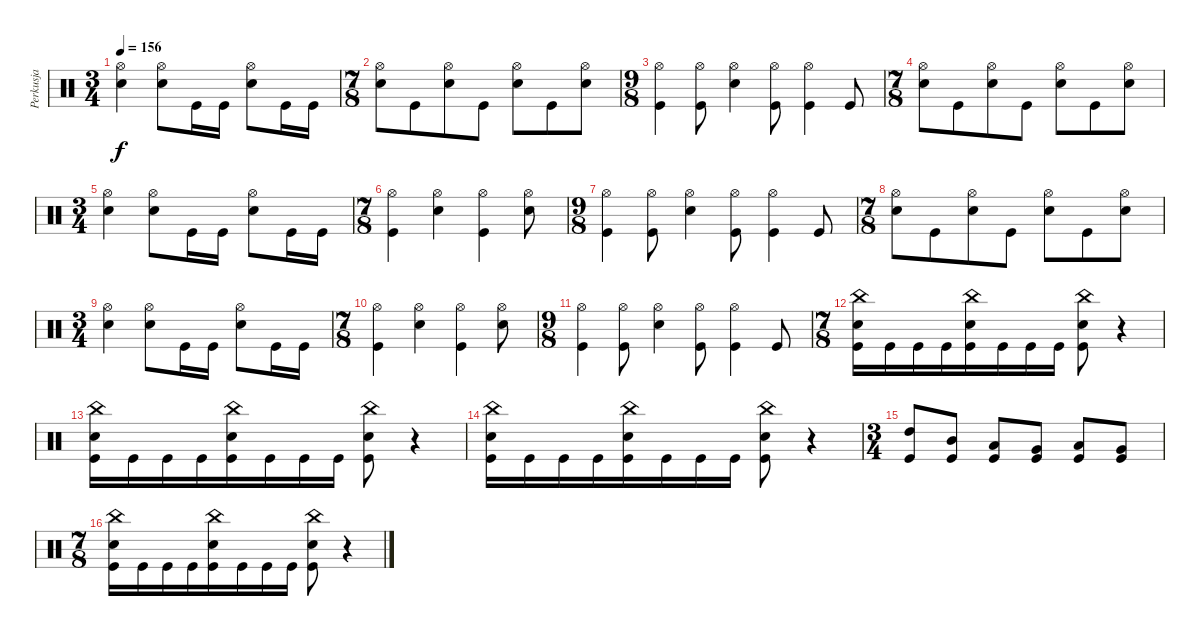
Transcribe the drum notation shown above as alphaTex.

\track ("Perkusja" "Perkusja") {instrument percussion}
\staff {score}
\articulation defaults
\ts (3 4)
\tempo 156
\clef neutral
\ks c
("Hi-Hat (open)" "Snare (hit) 2").4{dy f} ("Hi-Hat (open)" "Snare (hit) 2").8 "Kick (hit)".16 "Kick (hit)".16 ("Hi-Hat (open)" "Snare (hit) 2").8 "Kick (hit)".16 "Kick (hit)".16 |
\ts (7 8)
("Hi-Hat (open)" "Snare (hit) 2").8 "Kick (hit)".8 ("Hi-Hat (open)" "Snare (hit) 2").8 "Kick (hit)".8 ("Hi-Hat (open)" "Snare (hit) 2").8 "Kick (hit)".8 ("Hi-Hat (open)" "Snare (hit) 2").8 |
\ts (9 8)
("Hi-Hat (open)" "Kick (hit)").4 ("Hi-Hat (open)" "Kick (hit)").8 ("Hi-Hat (open)" "Snare (hit) 2").4 ("Hi-Hat (open)" "Kick (hit)").8 ("Hi-Hat (open)" "Kick (hit)").4 "Kick (hit)".8 |
\ts (7 8)
("Hi-Hat (open)" "Snare (hit) 2").8 "Kick (hit)".8 ("Hi-Hat (open)" "Snare (hit) 2").8 "Kick (hit)".8 ("Hi-Hat (open)" "Snare (hit) 2").8 "Kick (hit)".8 ("Hi-Hat (open)" "Snare (hit) 2").8 |
\ts (3 4)
("Hi-Hat (open)" "Snare (hit) 2").4 ("Hi-Hat (open)" "Snare (hit) 2").8 "Kick (hit)".16 "Kick (hit)".16 ("Hi-Hat (open)" "Snare (hit) 2").8 "Kick (hit)".16 "Kick (hit)".16 |
\ts (7 8)
("Hi-Hat (open)" "Kick (hit)").4 ("Hi-Hat (open)" "Snare (hit) 2").4 ("Hi-Hat (open)" "Kick (hit)").4 ("Hi-Hat (open)" "Snare (hit) 2").8 |
\ts (9 8)
("Hi-Hat (open)" "Kick (hit)").4 ("Hi-Hat (open)" "Kick (hit)").8 ("Hi-Hat (open)" "Snare (hit) 2").4 ("Hi-Hat (open)" "Kick (hit)").8 ("Hi-Hat (open)" "Kick (hit)").4 "Kick (hit)".8 |
\ts (7 8)
("Hi-Hat (open)" "Snare (hit) 2").8 "Kick (hit)".8 ("Hi-Hat (open)" "Snare (hit) 2").8 "Kick (hit)".8 ("Hi-Hat (open)" "Snare (hit) 2").8 "Kick (hit)".8 ("Hi-Hat (open)" "Snare (hit) 2").8 |
\ts (3 4)
("Hi-Hat (open)" "Snare (hit) 2").4 ("Hi-Hat (open)" "Snare (hit) 2").8 "Kick (hit)".16 "Kick (hit)".16 ("Hi-Hat (open)" "Snare (hit) 2").8 "Kick (hit)".16 "Kick (hit)".16 |
\ts (7 8)
("Hi-Hat (open)" "Kick (hit)").4 ("Hi-Hat (open)" "Snare (hit) 2").4 ("Hi-Hat (open)" "Kick (hit)").4 ("Hi-Hat (open)" "Snare (hit) 2").8 |
\ts (9 8)
("Hi-Hat (open)" "Kick (hit)").4 ("Hi-Hat (open)" "Kick (hit)").8 ("Hi-Hat (open)" "Snare (hit) 2").4 ("Hi-Hat (open)" "Kick (hit)").8 ("Hi-Hat (open)" "Kick (hit)").4 "Kick (hit)".8 |
\ts (7 8)
("China (hit)" "Snare (hit) 2" "Kick (hit)").16 "Kick (hit)".16 "Kick (hit)".16 "Kick (hit)".16 ("China (hit)" "Snare (hit) 2" "Kick (hit)").16 "Kick (hit)".16 "Kick (hit)".16 "Kick (hit)".16 ("China (hit)" "Snare (hit) 2" "Kick (hit)").8 r.4 |
("China (hit)" "Snare (hit) 2" "Kick (hit)").16 "Kick (hit)".16 "Kick (hit)".16 "Kick (hit)".16 ("China (hit)" "Snare (hit) 2" "Kick (hit)").16 "Kick (hit)".16 "Kick (hit)".16 "Kick (hit)".16 ("China (hit)" "Snare (hit) 2" "Kick (hit)").8 r.4 |
("China (hit)" "Snare (hit) 2" "Kick (hit)").16 "Kick (hit)".16 "Kick (hit)".16 "Kick (hit)".16 ("China (hit)" "Snare (hit) 2" "Kick (hit)").16 "Kick (hit)".16 "Kick (hit)".16 "Kick (hit)".16 ("China (hit)" "Snare (hit) 2" "Kick (hit)").8 r.4 |
\ts (3 4)
("High Tom (hit)" "Kick (hit)").8 ("Mid Tom (hit)" "Kick (hit)").8 ("Low Tom (hit)" "Kick (hit)").8 ("Very Low Tom (hit)" "Kick (hit)").8 ("Low Tom (hit)" "Kick (hit)").8 ("Very Low Tom (hit)" "Kick (hit)").8 |
\ts (7 8)
("China (hit)" "Snare (hit) 2" "Kick (hit)").16 "Kick (hit)".16 "Kick (hit)".16 "Kick (hit)".16 ("China (hit)" "Snare (hit) 2" "Kick (hit)").16 "Kick (hit)".16 "Kick (hit)".16 "Kick (hit)".16 ("China (hit)" "Snare (hit) 2" "Kick (hit)").8 r.4
